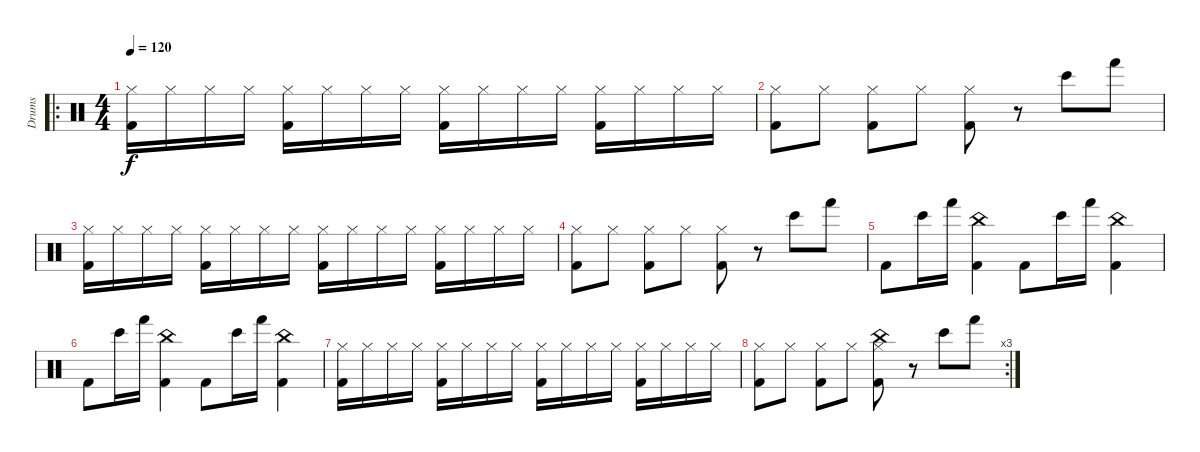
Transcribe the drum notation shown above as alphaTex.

\track ("Drums" "Drums") {instrument percussion}
\staff {score}
\articulation defaults
\ro
\ts (4 4)
\tempo 120
\clef neutral
\ks c
("Hi-Hat (closed)" "Kick (hit) 2").16{dy f} "Hi-Hat (closed)".16 "Hi-Hat (closed)".16 "Hi-Hat (closed)".16 ("Hi-Hat (closed)" "Kick (hit) 2").16 "Hi-Hat (closed)".16 "Hi-Hat (closed)".16 "Hi-Hat (closed)".16 ("Hi-Hat (closed)" "Kick (hit) 2").16 "Hi-Hat (closed)".16 "Hi-Hat (closed)".16 "Hi-Hat (closed)".16 ("Hi-Hat (closed)" "Kick (hit) 2").16 "Hi-Hat (closed)".16 "Hi-Hat (closed)".16 "Hi-Hat (closed)".16 |
("Hi-Hat (closed)" "Kick (hit) 2").8 "Hi-Hat (closed)".8 ("Hi-Hat (closed)" "Kick (hit) 2").8 "Hi-Hat (closed)".8 ("Hi-Hat (closed)" "Kick (hit) 2").8 r.8 "Bongo High (hit)".8 "Hand (hit)".8 |
("Hi-Hat (closed)" "Kick (hit) 2").16 "Hi-Hat (closed)".16 "Hi-Hat (closed)".16 "Hi-Hat (closed)".16 ("Hi-Hat (closed)" "Kick (hit) 2").16 "Hi-Hat (closed)".16 "Hi-Hat (closed)".16 "Hi-Hat (closed)".16 ("Hi-Hat (closed)" "Kick (hit) 2").16 "Hi-Hat (closed)".16 "Hi-Hat (closed)".16 "Hi-Hat (closed)".16 ("Hi-Hat (closed)" "Kick (hit) 2").16 "Hi-Hat (closed)".16 "Hi-Hat (closed)".16 "Hi-Hat (closed)".16 |
("Hi-Hat (closed)" "Kick (hit) 2").8 "Hi-Hat (closed)".8 ("Hi-Hat (closed)" "Kick (hit) 2").8 "Hi-Hat (closed)".8 ("Hi-Hat (closed)" "Kick (hit) 2").8 r.8 "Bongo High (hit)".8 "Hand (hit)".8 |
"Kick (hit) 2".8 "Bongo High (hit)".16 "Hand (hit)".16 ("China (hit)" "Kick (hit) 2").4 "Kick (hit) 2".8 "Bongo High (hit)".16 "Hand (hit)".16 ("China (hit)" "Kick (hit) 2").4 |
"Kick (hit) 2".8 "Bongo High (hit)".16 "Hand (hit)".16 ("China (hit)" "Kick (hit) 2").4 "Kick (hit) 2".8 "Bongo High (hit)".16 "Hand (hit)".16 ("China (hit)" "Kick (hit) 2").4 |
("Hi-Hat (closed)" "Kick (hit) 2").16 "Hi-Hat (closed)".16 "Hi-Hat (closed)".16 "Hi-Hat (closed)".16 ("Hi-Hat (closed)" "Kick (hit) 2").16 "Hi-Hat (closed)".16 "Hi-Hat (closed)".16 "Hi-Hat (closed)".16 ("Hi-Hat (closed)" "Kick (hit) 2").16 "Hi-Hat (closed)".16 "Hi-Hat (closed)".16 "Hi-Hat (closed)".16 ("Hi-Hat (closed)" "Kick (hit) 2").16 "Hi-Hat (closed)".16 "Hi-Hat (closed)".16 "Hi-Hat (closed)".16 |
\rc 3
("Hi-Hat (closed)" "Kick (hit) 2").8 "Hi-Hat (closed)".8 ("Hi-Hat (closed)" "Kick (hit) 2").8 "Hi-Hat (closed)".8 ("China (hit)" "Hi-Hat (closed)" "Kick (hit) 2").8 r.8 "Bongo High (hit)".8 "Hand (hit)".8
